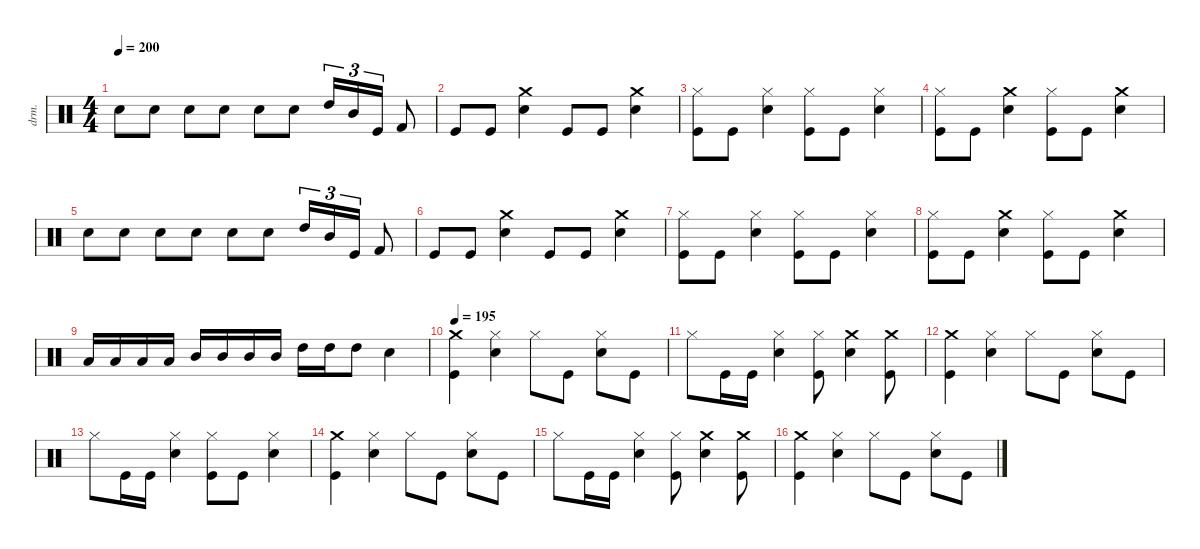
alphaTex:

\defaultSystemsLayout 4
\hideDynamics
\bracketExtendMode nobrackets
\otherSystemsTrackNameOrientation horizontal
\track ("Lars Ulrich (Drums)" "drm.") {instrument percussion}
\staff {score}
\articulation defaults
\ts (4 4)
\tempo 200
\clef neutral
\ks c "Snare (hit) 2".8{dy f beam Down} "Snare (hit) 2".8{beam Down} "Snare (hit) 2".8{beam Down} "Snare (hit) 2".8{beam Down} "Snare (hit) 2".8{beam Down} "Snare (hit) 2".8{beam Down} "High Tom (hit)".16{tu (3 2) beam Up} "Mid Tom (hit)".16{tu (3 2) beam Up} "Kick (hit)".16{tu (3 2) beam Up} "Kick (hit) 2".8{beam Up}
|
"Kick (hit)".8{beam Up} "Kick (hit)".8{beam Up} ("Crash medium (hit)" "Snare (hit) 2").4{beam Down} "Kick (hit)".8{beam Up} "Kick (hit)".8{beam Up} ("Crash medium (hit)" "Snare (hit) 2").4{beam Down} |
("Kick (hit)" "Hi-Hat (closed)").8{beam Down} "Kick (hit)".8{beam Down} ("Snare (hit) 2" "Hi-Hat (closed)").4{beam Down} ("Kick (hit)" "Hi-Hat (closed)").8{beam Down} "Kick (hit)".8{beam Down} ("Snare (hit) 2" "Hi-Hat (closed)").4{beam Down} |
("Kick (hit)" "Hi-Hat (closed)").8{beam Down} "Kick (hit)".8{beam Down} ("Snare (hit) 2" "Crash medium (hit)").4{beam Down} ("Kick (hit)" "Hi-Hat (closed)").8{beam Down} "Kick (hit)".8{beam Down} ("Crash medium (hit)" "Snare (hit) 2").4{beam Down} |
"Snare (hit) 2".8{beam Down} "Snare (hit) 2".8{beam Down} "Snare (hit) 2".8{beam Down} "Snare (hit) 2".8{beam Down} "Snare (hit) 2".8{beam Down} "Snare (hit) 2".8{beam Down} "High Tom (hit)".16{tu (3 2) beam Up} "Mid Tom (hit)".16{tu (3 2) beam Up} "Kick (hit)".16{tu (3 2) beam Up} "Kick (hit) 2".8{beam Up} |
"Kick (hit)".8{beam Up} "Kick (hit)".8{beam Up} ("Crash medium (hit)" "Snare (hit) 2").4{beam Down} "Kick (hit)".8{beam Up} "Kick (hit)".8{beam Up} ("Crash medium (hit)" "Snare (hit) 2").4{beam Down} |
("Kick (hit)" "Hi-Hat (closed)").8{beam Down} "Kick (hit)".8{beam Down} ("Snare (hit) 2" "Hi-Hat (closed)").4{beam Down} ("Kick (hit)" "Hi-Hat (closed)").8{beam Down} "Kick (hit)".8{beam Down} ("Snare (hit) 2" "Hi-Hat (closed)").4{beam Down} |
("Kick (hit)" "Hi-Hat (closed)").8{beam Down} "Kick (hit)".8{beam Down} ("Snare (hit) 2" "Crash medium (hit)").4{beam Down} ("Kick (hit)" "Hi-Hat (closed)").8{beam Down} "Kick (hit)".8{beam Down} ("Crash medium (hit)" "Snare (hit) 2").4{beam Down} |
"Low Tom (hit)".16{beam Up} "Low Tom (hit)".16{beam Up} "Low Tom (hit)".16{beam Up} "Low Tom (hit)".16{beam Up} "Mid Tom (hit)".16{beam Up} "Mid Tom (hit)".16{beam Up} "Mid Tom (hit)".16{beam Up} "Mid Tom (hit)".16{beam Up} "High Tom (hit)".16{beam Down} "High Tom (hit)".16{beam Down} "High Tom (hit)".8{beam Down} "Snare (hit) 2".4{beam Down} |
\tempo 195
("Kick (hit)" "Crash medium (hit)").4{beam Down} ("Hi-Hat (closed)" "Snare (hit) 2").4{beam Down} "Hi-Hat (closed)".8{beam Down} "Kick (hit)".8{beam Down} ("Snare (hit) 2" "Hi-Hat (closed)").8{beam Down} "Kick (hit)".8{beam Down} |
"Hi-Hat (closed)".8{beam Down} "Kick (hit)".16{beam Down} "Kick (hit)".16{beam Down} ("Snare (hit) 2" "Hi-Hat (closed)").4{beam Down} ("Kick (hit)" "Hi-Hat (closed)").8{beam Down} ("Snare (hit) 2" "Crash medium (hit)").4{beam Down} ("Crash medium (hit)" "Kick (hit)").8{beam Down} |
("Kick (hit)" "Crash medium (hit)").4{beam Down} ("Hi-Hat (closed)" "Snare (hit) 2").4{beam Down} "Hi-Hat (closed)".8{beam Down} "Kick (hit)".8{beam Down} ("Snare (hit) 2" "Hi-Hat (closed)").8{beam Down} "Kick (hit)".8{beam Down} |
"Hi-Hat (closed)".8{beam Down} "Kick (hit)".16{beam Down} "Kick (hit)".16{beam Down} ("Snare (hit) 2" "Hi-Hat (closed)").4{beam Down} ("Hi-Hat (closed)" "Kick (hit)").8{beam Down} "Kick (hit)".8{beam Down} ("Snare (hit) 2" "Hi-Hat (closed)").4{beam Down} |
("Kick (hit)" "Crash medium (hit)").4{beam Down} ("Hi-Hat (closed)" "Snare (hit) 2").4{beam Down} "Hi-Hat (closed)".8{beam Down} "Kick (hit)".8{beam Down} ("Snare (hit) 2" "Hi-Hat (closed)").8{beam Down} "Kick (hit)".8{beam Down} |
"Hi-Hat (closed)".8{beam Down} "Kick (hit)".16{beam Down} "Kick (hit)".16{beam Down} ("Snare (hit) 2" "Hi-Hat (closed)").4{beam Down} ("Kick (hit)" "Hi-Hat (closed)").8{beam Down} ("Snare (hit) 2" "Crash medium (hit)").4{beam Down} ("Crash medium (hit)" "Kick (hit)").8{beam Down} |
("Kick (hit)" "Crash medium (hit)").4{beam Down} ("Hi-Hat (closed)" "Snare (hit) 2").4{beam Down} "Hi-Hat (closed)".8{beam Down} "Kick (hit)".8{beam Down} ("Snare (hit) 2" "Hi-Hat (closed)").8{beam Down} "Kick (hit)".8{beam Down}
